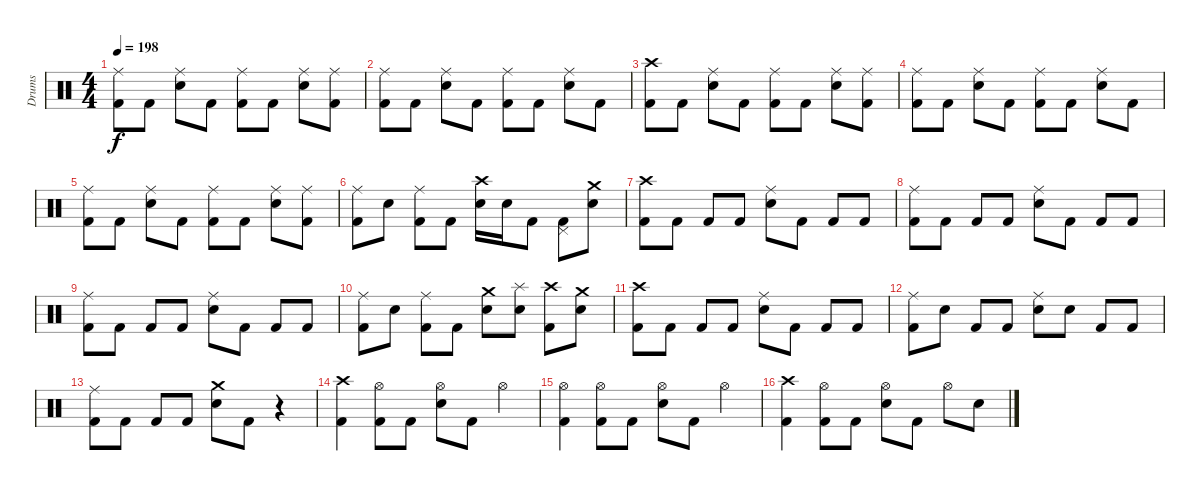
\track ("Drums" "Drums") {instrument percussion}
\staff {score}
\articulation defaults
\ts (4 4)
\tempo 198
\clef neutral
\ks c
("Ride (middle)" "Kick (hit) 2").8{dy f} "Kick (hit) 2".8 ("Ride (middle)" "Electric Snare (hit)").8 "Kick (hit) 2".8 ("Ride (middle)" "Kick (hit) 2").8 "Kick (hit) 2".8 ("Ride (middle)" "Electric Snare (hit)").8 ("Ride (middle)" "Kick (hit) 2").8 |
("Ride (middle)" "Kick (hit) 2").8 "Kick (hit) 2".8 ("Ride (middle)" "Electric Snare (hit)").8 "Kick (hit) 2".8 ("Ride (middle)" "Kick (hit) 2").8 "Kick (hit) 2".8 ("Ride (middle)" "Electric Snare (hit)").8 "Kick (hit) 2".8 |
("Crash high (hit)" "Kick (hit) 2").8 "Kick (hit) 2".8 ("Ride (middle)" "Electric Snare (hit)").8 "Kick (hit) 2".8 ("Ride (middle)" "Kick (hit) 2").8 "Kick (hit) 2".8 ("Ride (middle)" "Electric Snare (hit)").8 ("Ride (middle)" "Kick (hit) 2").8 |
("Ride (middle)" "Kick (hit) 2").8 "Kick (hit) 2".8 ("Ride (middle)" "Electric Snare (hit)").8 "Kick (hit) 2".8 ("Ride (middle)" "Kick (hit) 2").8 "Kick (hit) 2".8 ("Ride (middle)" "Electric Snare (hit)").8 "Kick (hit) 2".8 |
("Ride (middle)" "Kick (hit) 2").8 "Kick (hit) 2".8 ("Ride (middle)" "Electric Snare (hit)").8 "Kick (hit) 2".8 ("Ride (middle)" "Kick (hit) 2").8 "Kick (hit) 2".8 ("Ride (middle)" "Electric Snare (hit)").8 ("Ride (middle)" "Kick (hit) 2").8 |
("Ride (middle)" "Kick (hit) 2").8 "Electric Snare (hit)".8 ("Ride (middle)" "Kick (hit) 2").8 "Kick (hit) 2".8 ("Crash high (hit)" "Electric Snare (hit)").16 "Electric Snare (hit)".16 "Kick (hit) 2".8 ("Pedal Hi-Hat (hit)" "Kick (hit) 2").8 ("Crash medium (hit)" "Electric Snare (hit)").8 |
("Crash high (hit)" "Kick (hit) 2").8 "Kick (hit) 2".8 "Kick (hit) 2".8 "Kick (hit) 2".8 ("Ride (middle)" "Electric Snare (hit)").8 "Kick (hit) 2".8 "Kick (hit) 2".8 "Kick (hit) 2".8 |
("Ride (middle)" "Kick (hit) 2").8 "Kick (hit) 2".8 "Kick (hit) 2".8 "Kick (hit) 2".8 ("Ride (middle)" "Electric Snare (hit)").8 "Kick (hit) 2".8 "Kick (hit) 2".8 "Kick (hit) 2".8 |
("Ride (middle)" "Kick (hit) 2").8 "Kick (hit) 2".8 "Kick (hit) 2".8 "Kick (hit) 2".8 ("Ride (middle)" "Electric Snare (hit)").8 "Kick (hit) 2".8 "Kick (hit) 2".8 "Kick (hit) 2".8 |
("Ride (middle)" "Kick (hit) 2").8 "Electric Snare (hit)".8 ("Ride (middle)" "Kick (hit) 2").8 "Kick (hit) 2".8 ("Crash medium (hit)" "Electric Snare (hit)").8 ("Splash (hit)" "Electric Snare (hit)").8 ("Crash high (hit)" "Kick (hit) 2").8 ("Crash medium (hit)" "Electric Snare (hit)").8 |
("Crash high (hit)" "Kick (hit) 2").8 "Kick (hit) 2".8 "Kick (hit) 2".8 "Kick (hit) 2".8 ("Ride (middle)" "Electric Snare (hit)").8 "Kick (hit) 2".8 "Kick (hit) 2".8 "Kick (hit) 2".8 |
("Ride (middle)" "Kick (hit) 2").8 "Electric Snare (hit)".8 "Kick (hit) 2".8 "Kick (hit) 2".8 ("Ride (middle)" "Electric Snare (hit)").8 "Electric Snare (hit)".8 "Kick (hit) 2".8 "Kick (hit) 2".8 |
("Ride (middle)" "Kick (hit) 2").8 "Kick (hit) 2".8 "Kick (hit) 2".8 "Kick (hit) 2".8 ("Crash medium (hit)" "Electric Snare (hit)").8 "Kick (hit) 2".8 r.4 |
("Crash high (hit)" "Kick (hit) 2").4 ("Hi-Hat (open)" "Kick (hit) 2").8 "Kick (hit) 2".8 ("Hi-Hat (open)" "Electric Snare (hit)").8 "Kick (hit) 2".8 "Hi-Hat (open)".4 |
("Hi-Hat (open)" "Kick (hit) 2").4 ("Hi-Hat (open)" "Kick (hit) 2").8 "Kick (hit) 2".8 ("Hi-Hat (open)" "Electric Snare (hit)").8 "Kick (hit) 2".8 "Hi-Hat (open)".4 |
("Crash high (hit)" "Kick (hit) 2").4 ("Hi-Hat (open)" "Kick (hit) 2").8 "Kick (hit) 2".8 ("Hi-Hat (open)" "Electric Snare (hit)").8 "Kick (hit) 2".8 "Hi-Hat (open)".8 "Electric Snare (hit)".8
